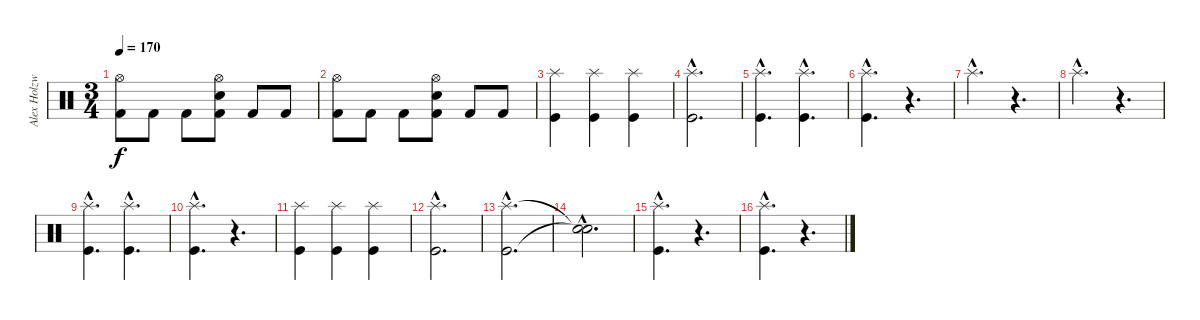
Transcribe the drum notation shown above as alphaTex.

\track ("Alex Holzwarth - Drums" "Alex Holzw") {instrument percussion}
\staff {score}
\articulation defaults
\ts (3 4)
\tempo 170
\clef neutral
\ks c
("Hi-Hat (open)" "Kick (hit) 2").8{dy f} "Kick (hit) 2".8 "Kick (hit) 2".8 ("Hi-Hat (open)" "Snare (hit) 2" "Kick (hit) 2").8 "Kick (hit) 2".8 "Kick (hit) 2".8 |
("Hi-Hat (open)" "Kick (hit) 2").8 "Kick (hit) 2".8 "Kick (hit) 2".8 ("Hi-Hat (open)" "Snare (hit) 2" "Kick (hit) 2").8 "Kick (hit) 2".8 "Kick (hit) 2".8 |
("Splash (hit)" "Kick (hit)").4 ("Splash (hit)" "Kick (hit)").4 ("Splash (hit)" "Kick (hit)").4 |
("Splash (hit)"{hac} "Kick (hit)"{hac}).2{d} |
("Splash (hit)"{hac} "Kick (hit)"{hac}).4{d} ("Splash (hit)"{hac} "Kick (hit)"{hac}).4{d} |
("Splash (hit)"{hac} "Kick (hit)"{hac}).4{d} r.4{d} |
"Splash (hit)"{hac}.4{d} r.4{d} |
"Splash (hit)"{hac}.4{d} r.4{d} |
("Splash (hit)"{hac} "Kick (hit)"{hac}).4{d} ("Splash (hit)"{hac} "Kick (hit)"{hac}).4{d} |
("Splash (hit)"{hac} "Kick (hit)"{hac}).4{d} r.4{d} |
("Splash (hit)" "Kick (hit)").4 ("Splash (hit)" "Kick (hit)").4 ("Splash (hit)" "Kick (hit)").4 |
("Splash (hit)"{hac} "Kick (hit)"{hac}).2{d} |
("Splash (hit)"{hac} "Kick (hit)"{hac}).2{d} |
("Snare (hit)"{hac t} "Snare (hit)"{hac t}).2{d} |
("Splash (hit)"{hac} "Kick (hit)"{hac}).4{d} r.4{d} |
("Splash (hit)"{hac} "Kick (hit)"{hac}).4{d} r.4{d}
